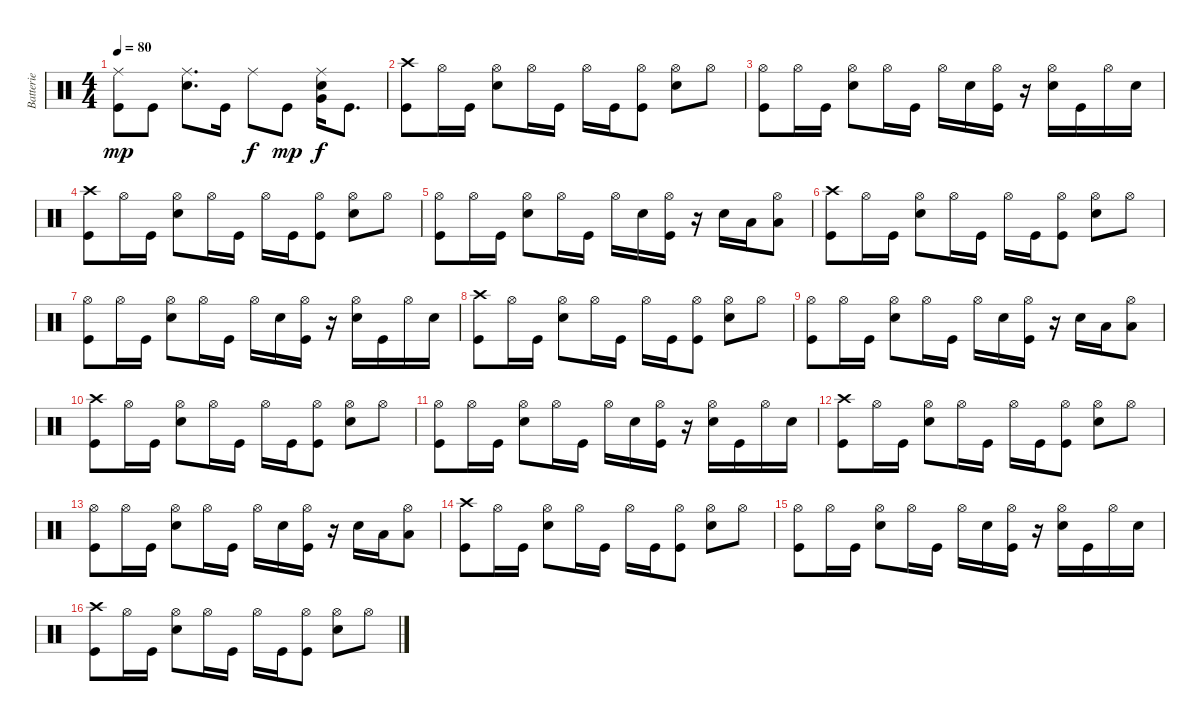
\track ("Batterie" "Batterie") {instrument percussion}
\staff {score}
\articulation defaults
\ts (4 4)
\tempo 80
\clef neutral
\ks c
("Ride (middle)" "Kick (hit)").8{dy mp} "Kick (hit)".8 ("Ride (middle)" "Snare (hit) 2").8{d} "Kick (hit)".16 "Ride (middle)".8{dy f} "Kick (hit)".8{dy mp} ("Ride (middle)" "Electric Snare (hit)" "Very Low Tom (hit)").16{dy f} "Kick (hit)".8{d} |
("Crash high (hit)" "Kick (hit)").8{volume 16} "Hi-Hat (open)".16 "Kick (hit)".16 ("Hi-Hat (open)" "Electric Snare (hit)").8 "Hi-Hat (open)".16 "Kick (hit)".16 "Hi-Hat (open)".16 "Kick (hit)".16 ("Hi-Hat (open)" "Kick (hit)").8 ("Hi-Hat (open)" "Electric Snare (hit)").8 "Hi-Hat (open)".8 |
("Hi-Hat (open)" "Kick (hit)").8 "Hi-Hat (open)".16 "Kick (hit)".16 ("Hi-Hat (open)" "Electric Snare (hit)").8 "Hi-Hat (open)".16 "Kick (hit)".16 "Hi-Hat (open)".16 "Electric Snare (hit)".16 ("Hi-Hat (open)" "Kick (hit)").16 r.16 ("Hi-Hat (open)" "Electric Snare (hit)").16 "Kick (hit)".16 "Hi-Hat (open)".16 "Electric Snare (hit)".16 |
("Crash high (hit)" "Kick (hit)").8{volume 16} "Hi-Hat (open)".16 "Kick (hit)".16 ("Hi-Hat (open)" "Electric Snare (hit)").8 "Hi-Hat (open)".16 "Kick (hit)".16 "Hi-Hat (open)".16 "Kick (hit)".16 ("Hi-Hat (open)" "Kick (hit)").8 ("Hi-Hat (open)" "Electric Snare (hit)").8 "Hi-Hat (open)".8 |
("Hi-Hat (open)" "Kick (hit)").8 "Hi-Hat (open)".16 "Kick (hit)".16 ("Hi-Hat (open)" "Electric Snare (hit)").8 "Hi-Hat (open)".16 "Kick (hit)".16 "Hi-Hat (open)".16 "Electric Snare (hit)".16 ("Hi-Hat (open)" "Kick (hit)").16 r.16 "Electric Snare (hit)".16 "Low Tom (hit)".16 ("Hi-Hat (open)" "Low Floor Tom (hit)").8 |
("Crash high (hit)" "Kick (hit)").8{volume 16} "Hi-Hat (open)".16 "Kick (hit)".16 ("Hi-Hat (open)" "Electric Snare (hit)").8 "Hi-Hat (open)".16 "Kick (hit)".16 "Hi-Hat (open)".16 "Kick (hit)".16 ("Hi-Hat (open)" "Kick (hit)").8 ("Hi-Hat (open)" "Electric Snare (hit)").8 "Hi-Hat (open)".8 |
("Hi-Hat (open)" "Kick (hit)").8 "Hi-Hat (open)".16 "Kick (hit)".16 ("Hi-Hat (open)" "Electric Snare (hit)").8 "Hi-Hat (open)".16 "Kick (hit)".16 "Hi-Hat (open)".16 "Electric Snare (hit)".16 ("Hi-Hat (open)" "Kick (hit)").16 r.16 ("Hi-Hat (open)" "Electric Snare (hit)").16 "Kick (hit)".16 "Hi-Hat (open)".16 "Electric Snare (hit)".16 |
("Crash high (hit)" "Kick (hit)").8{volume 16} "Hi-Hat (open)".16 "Kick (hit)".16 ("Hi-Hat (open)" "Electric Snare (hit)").8 "Hi-Hat (open)".16 "Kick (hit)".16 "Hi-Hat (open)".16 "Kick (hit)".16 ("Hi-Hat (open)" "Kick (hit)").8 ("Hi-Hat (open)" "Electric Snare (hit)").8 "Hi-Hat (open)".8 |
("Hi-Hat (open)" "Kick (hit)").8 "Hi-Hat (open)".16 "Kick (hit)".16 ("Hi-Hat (open)" "Electric Snare (hit)").8 "Hi-Hat (open)".16 "Kick (hit)".16 "Hi-Hat (open)".16 "Electric Snare (hit)".16 ("Hi-Hat (open)" "Kick (hit)").16 r.16 "Electric Snare (hit)".16 "Low Tom (hit)".16 ("Hi-Hat (open)" "Low Floor Tom (hit)").8 |
("Crash high (hit)" "Kick (hit)").8{volume 16} "Hi-Hat (open)".16 "Kick (hit)".16 ("Hi-Hat (open)" "Electric Snare (hit)").8 "Hi-Hat (open)".16 "Kick (hit)".16 "Hi-Hat (open)".16 "Kick (hit)".16 ("Hi-Hat (open)" "Kick (hit)").8 ("Hi-Hat (open)" "Electric Snare (hit)").8 "Hi-Hat (open)".8 |
("Hi-Hat (open)" "Kick (hit)").8 "Hi-Hat (open)".16 "Kick (hit)".16 ("Hi-Hat (open)" "Electric Snare (hit)").8 "Hi-Hat (open)".16 "Kick (hit)".16 "Hi-Hat (open)".16 "Electric Snare (hit)".16 ("Hi-Hat (open)" "Kick (hit)").16 r.16 ("Hi-Hat (open)" "Electric Snare (hit)").16 "Kick (hit)".16 "Hi-Hat (open)".16 "Electric Snare (hit)".16 |
("Crash high (hit)" "Kick (hit)").8{volume 16} "Hi-Hat (open)".16 "Kick (hit)".16 ("Hi-Hat (open)" "Electric Snare (hit)").8 "Hi-Hat (open)".16 "Kick (hit)".16 "Hi-Hat (open)".16 "Kick (hit)".16 ("Hi-Hat (open)" "Kick (hit)").8 ("Hi-Hat (open)" "Electric Snare (hit)").8 "Hi-Hat (open)".8 |
("Hi-Hat (open)" "Kick (hit)").8 "Hi-Hat (open)".16 "Kick (hit)".16 ("Hi-Hat (open)" "Electric Snare (hit)").8 "Hi-Hat (open)".16 "Kick (hit)".16 "Hi-Hat (open)".16 "Electric Snare (hit)".16 ("Hi-Hat (open)" "Kick (hit)").16 r.16 "Electric Snare (hit)".16 "Low Tom (hit)".16 ("Hi-Hat (open)" "Low Floor Tom (hit)").8 |
("Crash high (hit)" "Kick (hit)").8{volume 16} "Hi-Hat (open)".16 "Kick (hit)".16 ("Hi-Hat (open)" "Electric Snare (hit)").8 "Hi-Hat (open)".16 "Kick (hit)".16 "Hi-Hat (open)".16 "Kick (hit)".16 ("Hi-Hat (open)" "Kick (hit)").8 ("Hi-Hat (open)" "Electric Snare (hit)").8 "Hi-Hat (open)".8 |
("Hi-Hat (open)" "Kick (hit)").8 "Hi-Hat (open)".16 "Kick (hit)".16 ("Hi-Hat (open)" "Electric Snare (hit)").8 "Hi-Hat (open)".16 "Kick (hit)".16 "Hi-Hat (open)".16 "Electric Snare (hit)".16 ("Hi-Hat (open)" "Kick (hit)").16 r.16 ("Hi-Hat (open)" "Electric Snare (hit)").16 "Kick (hit)".16 "Hi-Hat (open)".16 "Electric Snare (hit)".16 |
("Crash high (hit)" "Kick (hit)").8{volume 16} "Hi-Hat (open)".16 "Kick (hit)".16 ("Hi-Hat (open)" "Electric Snare (hit)").8 "Hi-Hat (open)".16 "Kick (hit)".16 "Hi-Hat (open)".16 "Kick (hit)".16 ("Hi-Hat (open)" "Kick (hit)").8 ("Hi-Hat (open)" "Electric Snare (hit)").8 "Hi-Hat (open)".8
